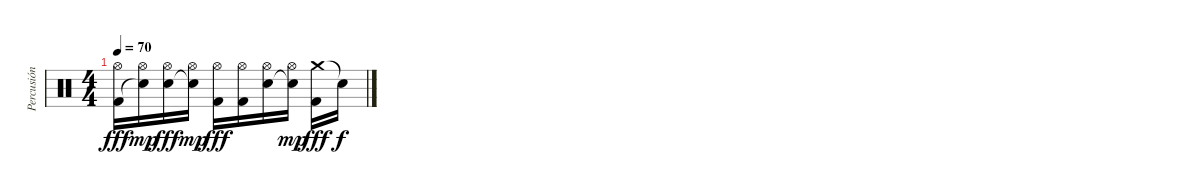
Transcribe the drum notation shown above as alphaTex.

\track ("Percusión" "Percusión") {instrument percussion}
\staff {score}
\articulation defaults
\ts (4 4)
\tempo 70
\clef neutral
\ks c
("Hi-Hat (open)" "Kick (hit) 2").16{dy fff} ("Hi-Hat (open)" "Snare (hit)"{t}).16{dy mp} ("Hi-Hat (open)" "Electric Snare (hit)").16{dy fff} ("Hi-Hat (open)" "Snare (hit)"{t}).16{dy mp} ("Hi-Hat (open)" "Kick (hit) 2").16{dy fff} ("Hi-Hat (open)" "Kick (hit) 2").16 ("Hi-Hat (open)" "Electric Snare (hit)").16 ("Hi-Hat (open)" "Snare (hit)"{t}).16{dy mp} ("Crash medium (hit)" "Kick (hit) 2").16{dy fff} "Snare (hit)"{t}.16{dy f}
